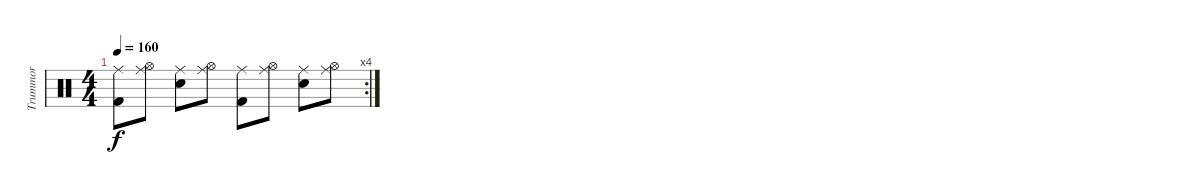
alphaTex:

\track ("Trummor" "Trummor") {instrument percussion}
\staff {score}
\articulation defaults
\rc 4
\ts (4 4)
\tempo 160
\clef neutral
\ks c
("Kick (hit) 2" "Ride (middle)").8{dy f} ("Hi-Hat (open)" "Ride (middle)").8 ("Electric Snare (hit)" "Ride (middle)").8 ("Hi-Hat (open)" "Ride (middle)").8 ("Kick (hit) 2" "Ride (middle)").8 ("Hi-Hat (open)" "Ride (middle)").8 ("Electric Snare (hit)" "Ride (middle)").8 ("Hi-Hat (open)" "Ride (middle)").8
